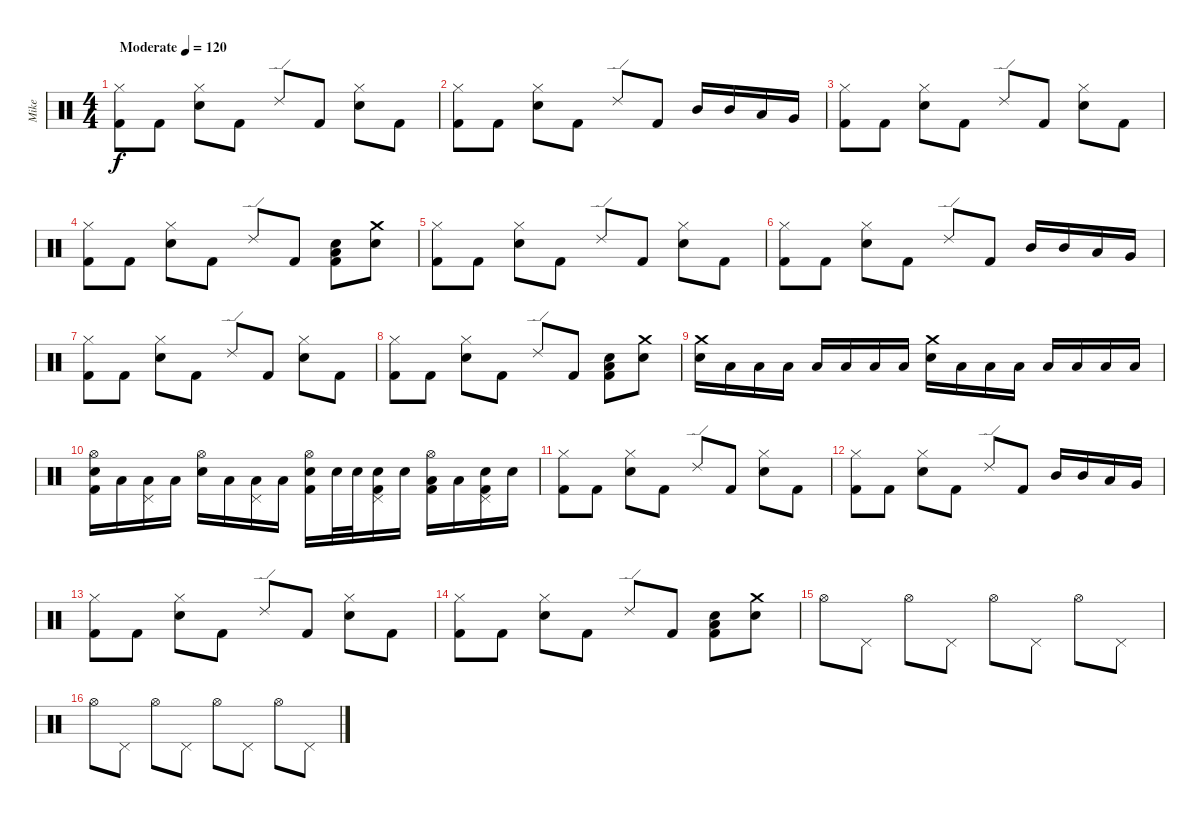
\track ("Mike" "Mike") {instrument percussion}
\staff {score}
\articulation defaults
\ts (4 4)
\tempo (120 "Moderate")
\clef neutral
\ks c
("Hi-Hat (closed)" "Kick (hit) 2").8{dy f} "Kick (hit) 2".8 ("Hi-Hat (closed)" "Electric Snare (hit)").8 "Kick (hit) 2".8 "Ride (edge) 2".8 "Kick (hit) 2".8 ("Hi-Hat (closed)" "Electric Snare (hit)").8 "Kick (hit) 2".8 |
("Hi-Hat (closed)" "Kick (hit) 2").8 "Kick (hit) 2".8 ("Hi-Hat (closed)" "Electric Snare (hit)").8 "Kick (hit) 2".8 "Ride (edge) 2".8 "Kick (hit) 2".8 "Mid Tom (hit)".16 "Mid Tom (hit)".16 "Low Tom (hit)".16 "Very Low Tom (hit)".16 |
("Hi-Hat (closed)" "Kick (hit) 2").8 "Kick (hit) 2".8 ("Hi-Hat (closed)" "Electric Snare (hit)").8 "Kick (hit) 2".8 "Ride (edge) 2".8 "Kick (hit) 2".8 ("Hi-Hat (closed)" "Electric Snare (hit)").8 "Kick (hit) 2".8 |
("Hi-Hat (closed)" "Kick (hit) 2").8 "Kick (hit) 2".8 ("Hi-Hat (closed)" "Electric Snare (hit)").8 "Kick (hit) 2".8 "Ride (edge) 2".8 "Kick (hit) 2".8 ("Low Floor Tom (hit)" "Electric Snare (hit)" "Kick (hit) 2").8 ("Crash medium (hit)" "Electric Snare (hit)").8 |
("Hi-Hat (closed)" "Kick (hit) 2").8 "Kick (hit) 2".8 ("Hi-Hat (closed)" "Electric Snare (hit)").8 "Kick (hit) 2".8 "Ride (edge) 2".8 "Kick (hit) 2".8 ("Hi-Hat (closed)" "Electric Snare (hit)").8 "Kick (hit) 2".8 |
("Hi-Hat (closed)" "Kick (hit) 2").8 "Kick (hit) 2".8 ("Hi-Hat (closed)" "Electric Snare (hit)").8 "Kick (hit) 2".8 "Ride (edge) 2".8 "Kick (hit) 2".8 "Mid Tom (hit)".16 "Mid Tom (hit)".16 "Low Tom (hit)".16 "Very Low Tom (hit)".16 |
("Hi-Hat (closed)" "Kick (hit) 2").8 "Kick (hit) 2".8 ("Hi-Hat (closed)" "Electric Snare (hit)").8 "Kick (hit) 2".8 "Ride (edge) 2".8 "Kick (hit) 2".8 ("Hi-Hat (closed)" "Electric Snare (hit)").8 "Kick (hit) 2".8 |
("Hi-Hat (closed)" "Kick (hit) 2").8 "Kick (hit) 2".8 ("Hi-Hat (closed)" "Electric Snare (hit)").8 "Kick (hit) 2".8 "Ride (edge) 2".8 "Kick (hit) 2".8 ("Low Floor Tom (hit)" "Electric Snare (hit)" "Kick (hit) 2").8 ("Crash medium (hit)" "Electric Snare (hit)").8 |
("Crash medium (hit)" "Electric Snare (hit)").16 "Low Floor Tom (hit)".16 "Low Floor Tom (hit)".16 "Low Floor Tom (hit)".16 "Low Floor Tom (hit)".16 "Low Floor Tom (hit)".16 "Low Floor Tom (hit)".16 "Low Floor Tom (hit)".16 ("Crash medium (hit)" "Electric Snare (hit)").16 "Low Floor Tom (hit)".16 "Low Floor Tom (hit)".16 "Low Floor Tom (hit)".16 "Low Floor Tom (hit)".16 "Low Floor Tom (hit)".16 "Low Floor Tom (hit)".16 "Low Floor Tom (hit)".16 |
("Hi-Hat (open)" "Electric Snare (hit)" "Kick (hit) 2").16 "Low Floor Tom (hit)".16 ("Pedal Hi-Hat (hit)" "Low Floor Tom (hit)").16 "Low Floor Tom (hit)".16 ("Hi-Hat (open)" "Electric Snare (hit)").16 "Low Floor Tom (hit)".16 ("Pedal Hi-Hat (hit)" "Low Floor Tom (hit)").16 "Low Floor Tom (hit)".16 ("Hi-Hat (open)" "Electric Snare (hit)" "Kick (hit) 2").16 "Electric Snare (hit)".32 "Electric Snare (hit)".32 ("Pedal Hi-Hat (hit)" "Electric Snare (hit)" "Kick (hit) 2").16 "Electric Snare (hit)".16 ("Hi-Hat (open)" "Low Floor Tom (hit)" "Kick (hit) 2").16 "Low Floor Tom (hit)".16 ("Pedal Hi-Hat (hit)" "Electric Snare (hit)" "Kick (hit) 2").16 "Electric Snare (hit)".16 |
("Hi-Hat (closed)" "Kick (hit) 2").8 "Kick (hit) 2".8 ("Hi-Hat (closed)" "Electric Snare (hit)").8 "Kick (hit) 2".8 "Ride (edge) 2".8 "Kick (hit) 2".8 ("Hi-Hat (closed)" "Electric Snare (hit)").8 "Kick (hit) 2".8 |
("Hi-Hat (closed)" "Kick (hit) 2").8 "Kick (hit) 2".8 ("Hi-Hat (closed)" "Electric Snare (hit)").8 "Kick (hit) 2".8 "Ride (edge) 2".8 "Kick (hit) 2".8 "Mid Tom (hit)".16 "Mid Tom (hit)".16 "Low Tom (hit)".16 "Very Low Tom (hit)".16 |
("Hi-Hat (closed)" "Kick (hit) 2").8 "Kick (hit) 2".8 ("Hi-Hat (closed)" "Electric Snare (hit)").8 "Kick (hit) 2".8 "Ride (edge) 2".8 "Kick (hit) 2".8 ("Hi-Hat (closed)" "Electric Snare (hit)").8 "Kick (hit) 2".8 |
("Hi-Hat (closed)" "Kick (hit) 2").8 "Kick (hit) 2".8 ("Hi-Hat (closed)" "Electric Snare (hit)").8 "Kick (hit) 2".8 "Ride (edge) 2".8 "Kick (hit) 2".8 ("Low Floor Tom (hit)" "Electric Snare (hit)" "Kick (hit) 2").8 ("Crash medium (hit)" "Electric Snare (hit)").8 |
"Hi-Hat (open)".8 "Pedal Hi-Hat (hit)".8 "Hi-Hat (open)".8 "Pedal Hi-Hat (hit)".8 "Hi-Hat (open)".8 "Pedal Hi-Hat (hit)".8 "Hi-Hat (open)".8 "Pedal Hi-Hat (hit)".8 |
"Hi-Hat (open)".8 "Pedal Hi-Hat (hit)".8 "Hi-Hat (open)".8 "Pedal Hi-Hat (hit)".8 "Hi-Hat (open)".8 "Pedal Hi-Hat (hit)".8 "Hi-Hat (open)".8 "Pedal Hi-Hat (hit)".8
